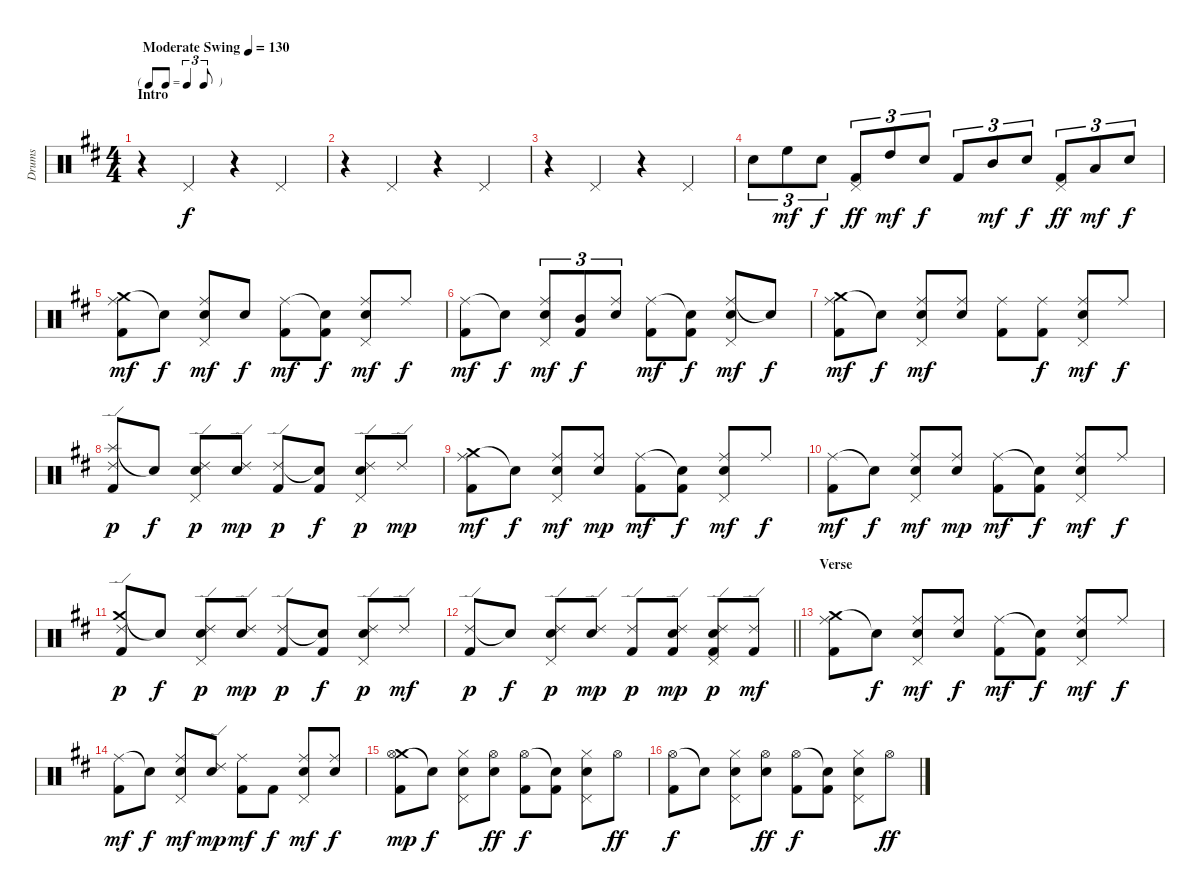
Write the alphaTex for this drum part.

\track ("Drums" "Drums") {instrument percussion}
\staff {score}
\articulation defaults
\ts (4 4)
\tf triplet8th
\section ("" "Intro")
\tempo (130 "Moderate Swing")
\clef neutral
\ks d
r.4{dy f} "Pedal Hi-Hat (hit)".4 r.4 "Pedal Hi-Hat (hit)".4 |
r.4 "Pedal Hi-Hat (hit)".4 r.4 "Pedal Hi-Hat (hit)".4 |
r.4 "Pedal Hi-Hat (hit)".4 r.4 "Pedal Hi-Hat (hit)".4 |
"Snare (hit) 2".8{tu (3 2)} "High Floor Tom (hit)".8{tu (3 2) dy mf} "Snare (hit) 2".8{tu (3 2) dy f} ("Pedal Hi-Hat (hit)" "Kick (hit) 2").8{tu (3 2) dy ff} "High Tom (hit)".8{tu (3 2) dy mf} "Snare (hit) 2".8{tu (3 2) dy f} "Kick (hit) 2".8{tu (3 2)} "Mid Tom (hit)".8{tu (3 2) dy mf} "Snare (hit) 2".8{tu (3 2) dy f} ("Pedal Hi-Hat (hit)" "Kick (hit) 2").8{tu (3 2) dy ff} "Low Tom (hit)".8{tu (3 2) dy mf} "Snare (hit) 2".8{tu (3 2) dy f} |
("Crash medium (hit)" "Ride (middle)" "Kick (hit) 2").8{dy mf} "Snare (hit)"{t}.8{dy f} ("Ride (middle)" "Pedal Hi-Hat (hit)" "Snare (hit) 2").8{dy mf} "Snare (hit) 2".8{dy f} ("Ride (middle)" "Kick (hit) 2").8{dy mf} ("Snare (hit)"{t} "Kick (hit) 2").8{dy f} ("Ride (middle)" "Pedal Hi-Hat (hit)" "Snare (hit) 2").8{dy mf} "Ride (middle)".8{dy f} |
("Ride (middle)" "Kick (hit) 2").8{dy mf} "Snare (hit)"{t}.8{dy f} ("Ride (middle)" "Pedal Hi-Hat (hit)" "Snare (hit) 2").8{tu (3 2) dy mf} ("Mid Tom (hit)" "Kick (hit) 2").8{tu (3 2) dy f} ("Ride (middle)" "Snare (hit) 2").8{tu (3 2)} ("Ride (middle)" "Kick (hit) 2").8{dy mf} ("Snare (hit)"{t} "Kick (hit) 2").8{dy f} ("Ride (middle)" "Pedal Hi-Hat (hit)" "Snare (hit) 2").8{dy mf} "Snare (hit)"{t}.8{dy f} |
("Crash medium (hit)" "Ride (middle)" "Kick (hit) 2").8{dy mf} "Snare (hit)"{t}.8{dy f} ("Ride (middle)" "Pedal Hi-Hat (hit)" "Snare (hit) 2").8{dy mf} ("Ride (middle)" "Snare (hit) 2").8 ("Ride (middle)" "Kick (hit) 2").8 ("Ride (middle)" "Kick (hit) 2").8{dy f} ("Ride (middle)" "Pedal Hi-Hat (hit)" "Snare (hit) 2").8{dy mf} "Ride (middle)".8{dy f} |
("Splash (hit)" "Ride (edge) 2" "Kick (hit) 2").8{dy p} "Snare (hit)"{t}.8{dy f} ("Ride (edge) 2" "Pedal Hi-Hat (hit)" "Snare (hit) 2").8{dy p} ("Ride (edge) 2" "Snare (hit) 2").8{dy mp} ("Ride (edge) 2" "Kick (hit) 2").8{dy p} ("Snare (hit)"{t} "Kick (hit) 2").8{dy f} ("Ride (edge) 2" "Pedal Hi-Hat (hit)" "Snare (hit) 2").8{dy p} "Ride (edge) 2".8{dy mp} |
("Crash medium (hit)" "Ride (middle)" "Kick (hit) 2").8{dy mf} "Snare (hit)"{t}.8{dy f} ("Ride (middle)" "Pedal Hi-Hat (hit)" "Snare (hit) 2").8{dy mf} ("Ride (middle)" "Snare (hit) 2").8{dy mp} ("Ride (middle)" "Kick (hit) 2").8{dy mf} ("Snare (hit)"{t} "Kick (hit) 2").8{dy f} ("Ride (middle)" "Pedal Hi-Hat (hit)" "Snare (hit) 2").8{dy mf} "Ride (middle)".8{dy f} |
("Ride (middle)" "Kick (hit) 2").8{dy mf} "Snare (hit)"{t}.8{dy f} ("Ride (middle)" "Pedal Hi-Hat (hit)" "Snare (hit) 2").8{dy mf} ("Ride (middle)" "Snare (hit) 2").8{dy mp} ("Ride (middle)" "Kick (hit) 2").8{dy mf} ("Snare (hit)"{t} "Kick (hit) 2").8{dy f} ("Ride (middle)" "Pedal Hi-Hat (hit)" "Snare (hit) 2").8{dy mf} "Ride (middle)".8{dy f} |
("Crash medium (hit)" "Ride (edge) 2" "Kick (hit) 2").8{dy p} "Snare (hit)"{t}.8{dy f} ("Ride (edge) 2" "Pedal Hi-Hat (hit)" "Snare (hit) 2").8{dy p} ("Ride (edge) 2" "Snare (hit) 2").8{dy mp} ("Ride (edge) 2" "Kick (hit) 2").8{dy p} ("Snare (hit)"{t} "Kick (hit) 2").8{dy f} ("Ride (edge) 2" "Pedal Hi-Hat (hit)" "Snare (hit) 2").8{dy p} "Ride (edge) 2".8{dy mf} |
\barLineRight lightlight
("Ride (edge) 2" "Kick (hit) 2").8{dy p} "Snare (hit)"{t}.8{dy f} ("Ride (edge) 2" "Pedal Hi-Hat (hit)" "Snare (hit) 2").8{dy p} ("Ride (edge) 2" "Snare (hit) 2").8{dy mp} ("Ride (edge) 2" "Kick (hit) 2").8{dy p} ("Ride (edge) 2" "Snare (hit) 2" "Kick (hit) 2").8{dy mp} ("Ride (edge) 2" "Pedal Hi-Hat (hit)" "Snare (hit) 2" "Kick (hit) 2").8{dy p} ("Ride (edge) 2" "Kick (hit) 2").8{dy mf} |
\section ("" "Verse")
("Crash medium (hit)" "Ride (middle)" "Kick (hit) 2").8 "Snare (hit)"{t}.8{dy f} ("Ride (middle)" "Pedal Hi-Hat (hit)" "Snare (hit) 2").8{dy mf} ("Ride (middle)" "Snare (hit) 2").8{dy f} ("Ride (middle)" "Kick (hit) 2").8{dy mf} ("Snare (hit)"{t} "Kick (hit) 2").8{dy f} ("Ride (middle)" "Pedal Hi-Hat (hit)" "Snare (hit) 2").8{dy mf} "Ride (middle)".8{dy f} |
("Ride (middle)" "Kick (hit) 2").8{dy mf} "Snare (hit)"{t}.8{dy f} ("Ride (middle)" "Pedal Hi-Hat (hit)" "Snare (hit) 2").8{dy mf} ("Ride (edge) 2" "Snare (hit) 2").8{dy mp} ("Ride (middle)" "Kick (hit) 2").8{dy mf} "Kick (hit) 2".8{dy f} ("Ride (middle)" "Pedal Hi-Hat (hit)" "Snare (hit) 2").8{dy mf} ("Ride (middle)" "Snare (hit) 2").8{dy f} |
("Crash medium (hit)" "Hi-Hat (open)" "Kick (hit) 2").8{dy mp} "Snare (hit)"{t}.8{dy f} ("Hi-Hat (closed)" "Pedal Hi-Hat (hit)" "Snare (hit) 2").8 ("Hi-Hat (open)" "Snare (hit) 2").8{dy ff} ("Hi-Hat (open)" "Kick (hit) 2").8{dy f} ("Snare (hit)"{t} "Kick (hit) 2").8 ("Hi-Hat (closed)" "Pedal Hi-Hat (hit)" "Snare (hit) 2").8 "Hi-Hat (open)".8{dy ff} |
("Hi-Hat (open)" "Kick (hit) 2").8{dy f} "Snare (hit)"{t}.8 ("Hi-Hat (closed)" "Pedal Hi-Hat (hit)" "Snare (hit) 2").8 ("Hi-Hat (open)" "Snare (hit) 2").8{dy ff} ("Hi-Hat (open)" "Kick (hit) 2").8{dy f} ("Snare (hit)"{t} "Kick (hit) 2").8 ("Hi-Hat (closed)" "Pedal Hi-Hat (hit)" "Snare (hit) 2").8 "Hi-Hat (open)".8{dy ff}
